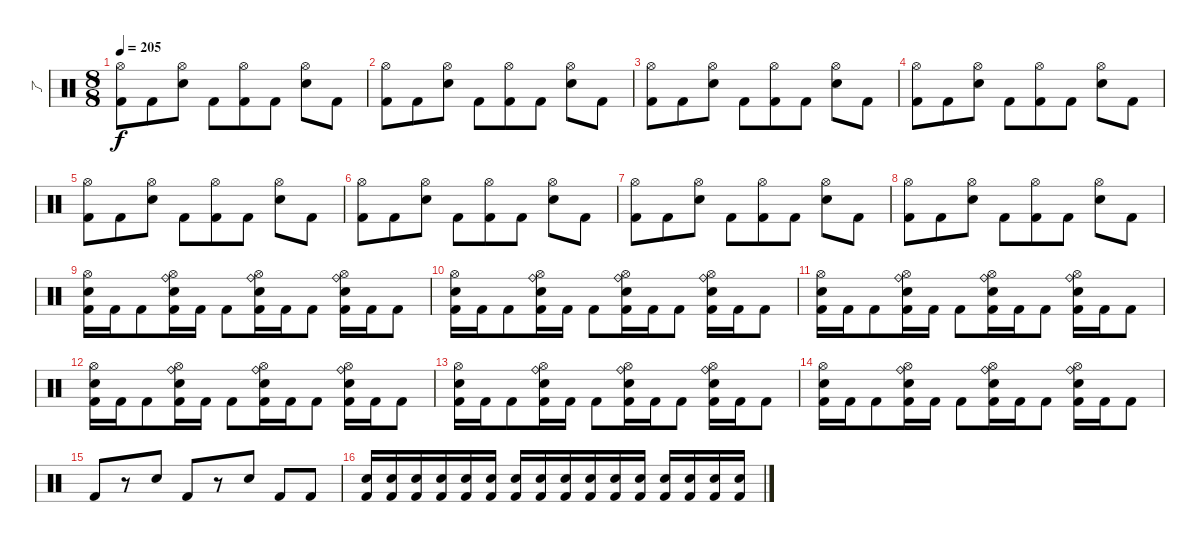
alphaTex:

\track ("了" "了") {instrument percussion}
\staff {score}
\articulation defaults
\ts (8 8)
\tempo 205
\clef neutral
\ks c
("Hi-Hat (open)" "Kick (hit) 2").8{dy f} "Kick (hit) 2".8 ("Hi-Hat (open)" "Electric Snare (hit)").8 "Kick (hit) 2".8 ("Hi-Hat (open)" "Kick (hit) 2").8 "Kick (hit) 2".8 ("Hi-Hat (open)" "Electric Snare (hit)").8 "Kick (hit) 2".8 |
("Hi-Hat (open)" "Kick (hit) 2").8 "Kick (hit) 2".8 ("Hi-Hat (open)" "Electric Snare (hit)").8 "Kick (hit) 2".8 ("Hi-Hat (open)" "Kick (hit) 2").8 "Kick (hit) 2".8 ("Hi-Hat (open)" "Electric Snare (hit)").8 "Kick (hit) 2".8 |
("Hi-Hat (open)" "Kick (hit) 2").8 "Kick (hit) 2".8 ("Hi-Hat (open)" "Electric Snare (hit)").8 "Kick (hit) 2".8 ("Hi-Hat (open)" "Kick (hit) 2").8 "Kick (hit) 2".8 ("Hi-Hat (open)" "Electric Snare (hit)").8 "Kick (hit) 2".8 |
("Hi-Hat (open)" "Kick (hit) 2").8 "Kick (hit) 2".8 ("Hi-Hat (open)" "Electric Snare (hit)").8 "Kick (hit) 2".8 ("Hi-Hat (open)" "Kick (hit) 2").8 "Kick (hit) 2".8 ("Hi-Hat (open)" "Electric Snare (hit)").8 "Kick (hit) 2".8 |
("Hi-Hat (open)" "Kick (hit) 2").8 "Kick (hit) 2".8 ("Hi-Hat (open)" "Electric Snare (hit)").8 "Kick (hit) 2".8 ("Hi-Hat (open)" "Kick (hit) 2").8 "Kick (hit) 2".8 ("Hi-Hat (open)" "Electric Snare (hit)").8 "Kick (hit) 2".8 |
("Hi-Hat (open)" "Kick (hit) 2").8 "Kick (hit) 2".8 ("Hi-Hat (open)" "Electric Snare (hit)").8 "Kick (hit) 2".8 ("Hi-Hat (open)" "Kick (hit) 2").8 "Kick (hit) 2".8 ("Hi-Hat (open)" "Electric Snare (hit)").8 "Kick (hit) 2".8 |
("Hi-Hat (open)" "Kick (hit) 2").8 "Kick (hit) 2".8 ("Hi-Hat (open)" "Electric Snare (hit)").8 "Kick (hit) 2".8 ("Hi-Hat (open)" "Kick (hit) 2").8 "Kick (hit) 2".8 ("Hi-Hat (open)" "Electric Snare (hit)").8 "Kick (hit) 2".8 |
("Hi-Hat (open)" "Kick (hit) 2").8 "Kick (hit) 2".8 ("Hi-Hat (open)" "Electric Snare (hit)").8 "Kick (hit) 2".8 ("Hi-Hat (open)" "Kick (hit) 2").8 "Kick (hit) 2".8 ("Hi-Hat (open)" "Electric Snare (hit)").8 "Kick (hit) 2".8 |
("Hi-Hat (open)" "Electric Snare (hit)" "Kick (hit) 2").16 "Kick (hit) 2".16 "Kick (hit) 2".8 ("Hi-Hat (open)" "Electric Snare (hit)" "Kick (hit) 2" "Ride (bell)").16 "Kick (hit) 2".16 "Kick (hit) 2".8 ("Hi-Hat (open)" "Electric Snare (hit)" "Kick (hit) 2" "Ride (bell)").16 "Kick (hit) 2".16 "Kick (hit) 2".8 ("Hi-Hat (open)" "Electric Snare (hit)" "Kick (hit) 2" "Ride (bell)").16 "Kick (hit) 2".16 "Kick (hit) 2".8 |
("Hi-Hat (open)" "Electric Snare (hit)" "Kick (hit) 2").16 "Kick (hit) 2".16 "Kick (hit) 2".8 ("Hi-Hat (open)" "Electric Snare (hit)" "Kick (hit) 2" "Ride (bell)").16 "Kick (hit) 2".16 "Kick (hit) 2".8 ("Hi-Hat (open)" "Electric Snare (hit)" "Kick (hit) 2" "Ride (bell)").16 "Kick (hit) 2".16 "Kick (hit) 2".8 ("Hi-Hat (open)" "Electric Snare (hit)" "Kick (hit) 2" "Ride (bell)").16 "Kick (hit) 2".16 "Kick (hit) 2".8 |
("Hi-Hat (open)" "Electric Snare (hit)" "Kick (hit) 2").16 "Kick (hit) 2".16 "Kick (hit) 2".8 ("Hi-Hat (open)" "Electric Snare (hit)" "Kick (hit) 2" "Ride (bell)").16 "Kick (hit) 2".16 "Kick (hit) 2".8 ("Hi-Hat (open)" "Electric Snare (hit)" "Kick (hit) 2" "Ride (bell)").16 "Kick (hit) 2".16 "Kick (hit) 2".8 ("Hi-Hat (open)" "Electric Snare (hit)" "Kick (hit) 2" "Ride (bell)").16 "Kick (hit) 2".16 "Kick (hit) 2".8 |
("Hi-Hat (open)" "Electric Snare (hit)" "Kick (hit) 2").16 "Kick (hit) 2".16 "Kick (hit) 2".8 ("Hi-Hat (open)" "Electric Snare (hit)" "Kick (hit) 2" "Ride (bell)").16 "Kick (hit) 2".16 "Kick (hit) 2".8 ("Hi-Hat (open)" "Electric Snare (hit)" "Kick (hit) 2" "Ride (bell)").16 "Kick (hit) 2".16 "Kick (hit) 2".8 ("Hi-Hat (open)" "Electric Snare (hit)" "Kick (hit) 2" "Ride (bell)").16 "Kick (hit) 2".16 "Kick (hit) 2".8 |
("Hi-Hat (open)" "Electric Snare (hit)" "Kick (hit) 2").16 "Kick (hit) 2".16 "Kick (hit) 2".8 ("Hi-Hat (open)" "Electric Snare (hit)" "Kick (hit) 2" "Ride (bell)").16 "Kick (hit) 2".16 "Kick (hit) 2".8 ("Hi-Hat (open)" "Electric Snare (hit)" "Kick (hit) 2" "Ride (bell)").16 "Kick (hit) 2".16 "Kick (hit) 2".8 ("Hi-Hat (open)" "Electric Snare (hit)" "Kick (hit) 2" "Ride (bell)").16 "Kick (hit) 2".16 "Kick (hit) 2".8 |
("Hi-Hat (open)" "Electric Snare (hit)" "Kick (hit) 2").16 "Kick (hit) 2".16 "Kick (hit) 2".8 ("Hi-Hat (open)" "Electric Snare (hit)" "Kick (hit) 2" "Ride (bell)").16 "Kick (hit) 2".16 "Kick (hit) 2".8 ("Hi-Hat (open)" "Electric Snare (hit)" "Kick (hit) 2" "Ride (bell)").16 "Kick (hit) 2".16 "Kick (hit) 2".8 ("Hi-Hat (open)" "Electric Snare (hit)" "Kick (hit) 2" "Ride (bell)").16 "Kick (hit) 2".16 "Kick (hit) 2".8 |
"Kick (hit) 2".8 r.8 "Snare (hit) 2".8 "Kick (hit) 2".8 r.8 "Snare (hit) 2".8 "Kick (hit) 2".8 "Kick (hit) 2".8 |
("Snare (hit) 2" "Kick (hit) 2").16 ("Snare (hit) 2" "Kick (hit) 2").16 ("Snare (hit) 2" "Kick (hit) 2").16 ("Snare (hit) 2" "Kick (hit) 2").16 ("Snare (hit) 2" "Kick (hit) 2").16 ("Snare (hit) 2" "Kick (hit) 2").16 ("Snare (hit) 2" "Kick (hit) 2").16 ("Snare (hit) 2" "Kick (hit) 2").16 ("Snare (hit) 2" "Kick (hit) 2").16 ("Snare (hit) 2" "Kick (hit) 2").16 ("Snare (hit) 2" "Kick (hit) 2").16 ("Snare (hit) 2" "Kick (hit) 2").16 ("Snare (hit) 2" "Kick (hit) 2").16 ("Snare (hit) 2" "Kick (hit) 2").16 ("Snare (hit) 2" "Kick (hit) 2").16 ("Snare (hit) 2" "Kick (hit) 2").16
